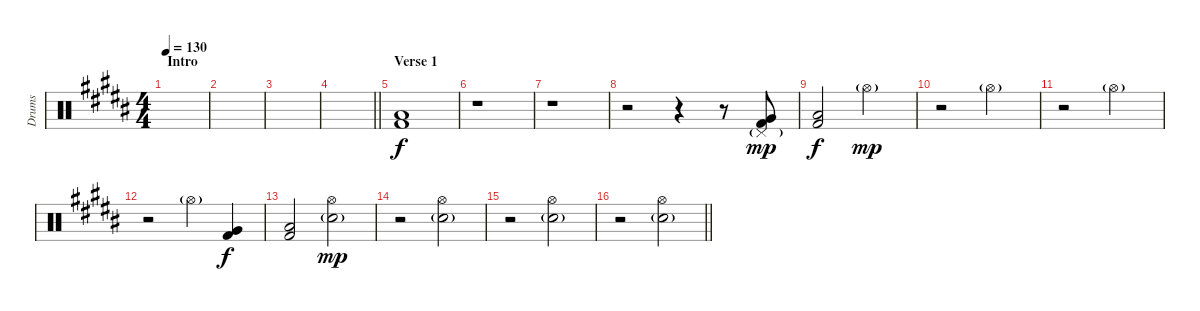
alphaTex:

\track ("Drums" "Drums") {instrument percussion}
\staff {score}
\articulation defaults
\ts (4 4)
\section ("" "Intro")
\tempo 130
\clef neutral
\ks b
|
|
|
\barLineRight lightlight
|
\section ("" "Verse 1")
("Low Floor Tom (hit)" "Kick (hit) 2").1 |
r.1 |
r.1 |
r.2 r.4 r.8 ("Pedal Hi-Hat (hit)"{g} "Very Low Tom (hit)" "Kick (hit) 2").8{dy mp} |
("Low Floor Tom (hit)" "Kick (hit) 2").2{dy f} "Hi-Hat (open)"{g}.2{dy mp} |
r.2 "Hi-Hat (open)"{g}.2 |
r.2 "Hi-Hat (open)"{g}.2 |
r.2 "Hi-Hat (open)"{g}.4 ("Very Low Tom (hit)" "Kick (hit) 2").4{dy f} |
("Low Floor Tom (hit)" "Kick (hit) 2").2 ("Hi-Hat (open)" "Electric Snare (hit)"{g}).2{dy mp} |
r.2 ("Hi-Hat (open)" "Electric Snare (hit)"{g}).2 |
r.2 ("Hi-Hat (open)" "Electric Snare (hit)"{g}).2 |
\barLineRight lightlight
r.2 ("Hi-Hat (open)" "Electric Snare (hit)"{g}).2
